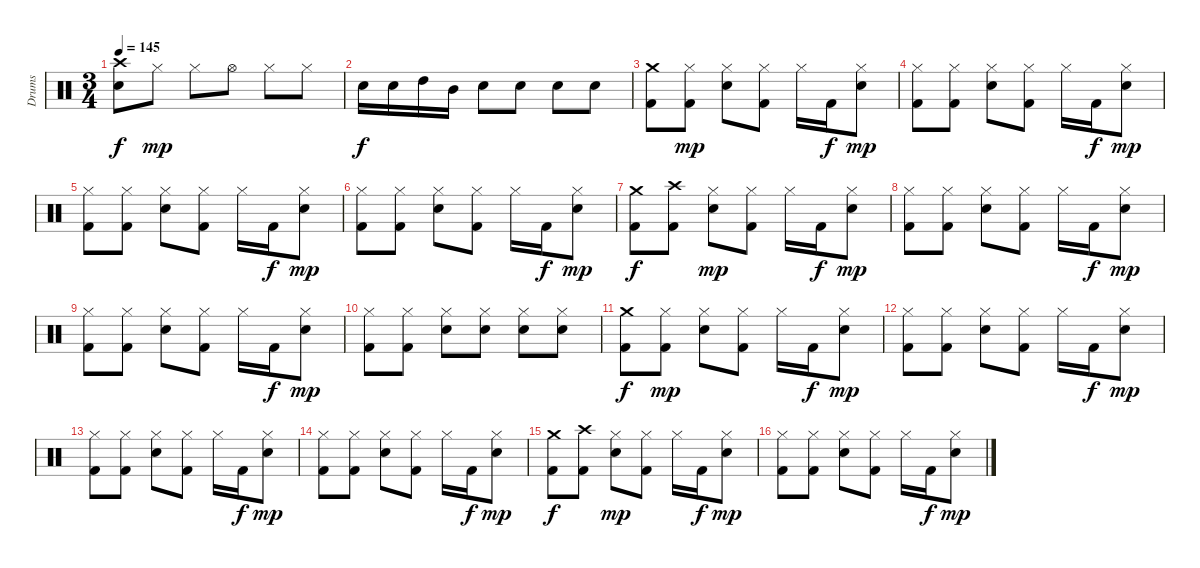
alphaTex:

\track ("Drums" "Drums") {instrument percussion}
\staff {score}
\articulation defaults
\ts (3 4)
\tempo 145
\clef neutral
\ks c
("Crash high (hit)" "Snare (hit) 2").8{dy f} "Hi-Hat (closed)".8{dy mp} "Hi-Hat (closed)".8 "Hi-Hat (open)".8 "Hi-Hat (closed)".8 "Hi-Hat (closed)".8 |
"Snare (hit) 2".16{dy f} "Snare (hit) 2".16 "High Tom (hit)".16 "Mid Tom (hit)".16 "Snare (hit) 2".8 "Snare (hit) 2".8 "Snare (hit) 2".8 "Snare (hit) 2".8 |
("Crash medium (hit)" "Kick (hit) 2").8 ("Hi-Hat (closed)" "Kick (hit) 2").8{dy mp} ("Hi-Hat (closed)" "Snare (hit) 2").8 ("Hi-Hat (closed)" "Kick (hit) 2").8 "Hi-Hat (closed)".16 "Kick (hit) 2".16{dy f} ("Hi-Hat (closed)" "Snare (hit) 2").8{dy mp} |
("Hi-Hat (closed)" "Kick (hit) 2").8 ("Hi-Hat (closed)" "Kick (hit) 2").8 ("Hi-Hat (closed)" "Snare (hit) 2").8 ("Hi-Hat (closed)" "Kick (hit) 2").8 "Hi-Hat (closed)".16 "Kick (hit) 2".16{dy f} ("Hi-Hat (closed)" "Snare (hit) 2").8{dy mp} |
("Hi-Hat (closed)" "Kick (hit) 2").8 ("Hi-Hat (closed)" "Kick (hit) 2").8 ("Hi-Hat (closed)" "Snare (hit) 2").8 ("Hi-Hat (closed)" "Kick (hit) 2").8 "Hi-Hat (closed)".16 "Kick (hit) 2".16{dy f} ("Hi-Hat (closed)" "Snare (hit) 2").8{dy mp} |
("Hi-Hat (closed)" "Kick (hit) 2").8 ("Hi-Hat (closed)" "Kick (hit) 2").8 ("Hi-Hat (closed)" "Snare (hit) 2").8 ("Hi-Hat (closed)" "Kick (hit) 2").8 "Hi-Hat (closed)".16 "Kick (hit) 2".16{dy f} ("Hi-Hat (closed)" "Snare (hit) 2").8{dy mp} |
("Crash medium (hit)" "Kick (hit) 2").8{dy f} ("Crash high (hit)" "Kick (hit) 2").8 ("Hi-Hat (closed)" "Snare (hit) 2").8{dy mp} ("Hi-Hat (closed)" "Kick (hit) 2").8 "Hi-Hat (closed)".16 "Kick (hit) 2".16{dy f} ("Hi-Hat (closed)" "Snare (hit) 2").8{dy mp} |
("Hi-Hat (closed)" "Kick (hit) 2").8 ("Hi-Hat (closed)" "Kick (hit) 2").8 ("Hi-Hat (closed)" "Snare (hit) 2").8 ("Hi-Hat (closed)" "Kick (hit) 2").8 "Hi-Hat (closed)".16 "Kick (hit) 2".16{dy f} ("Hi-Hat (closed)" "Snare (hit) 2").8{dy mp} |
("Hi-Hat (closed)" "Kick (hit) 2").8 ("Hi-Hat (closed)" "Kick (hit) 2").8 ("Hi-Hat (closed)" "Snare (hit) 2").8 ("Hi-Hat (closed)" "Kick (hit) 2").8 "Hi-Hat (closed)".16 "Kick (hit) 2".16{dy f} ("Hi-Hat (closed)" "Snare (hit) 2").8{dy mp} |
("Hi-Hat (closed)" "Kick (hit) 2").8 ("Hi-Hat (closed)" "Kick (hit) 2").8 ("Hi-Hat (closed)" "Snare (hit) 2").8 ("Hi-Hat (closed)" "Snare (hit) 2").8 ("Hi-Hat (closed)" "Snare (hit) 2").8 ("Hi-Hat (closed)" "Snare (hit) 2").8 |
("Crash medium (hit)" "Kick (hit) 2").8{dy f} ("Hi-Hat (closed)" "Kick (hit) 2").8{dy mp} ("Hi-Hat (closed)" "Snare (hit) 2").8 ("Hi-Hat (closed)" "Kick (hit) 2").8 "Hi-Hat (closed)".16 "Kick (hit) 2".16{dy f} ("Hi-Hat (closed)" "Snare (hit) 2").8{dy mp} |
("Hi-Hat (closed)" "Kick (hit) 2").8 ("Hi-Hat (closed)" "Kick (hit) 2").8 ("Hi-Hat (closed)" "Snare (hit) 2").8 ("Hi-Hat (closed)" "Kick (hit) 2").8 "Hi-Hat (closed)".16 "Kick (hit) 2".16{dy f} ("Hi-Hat (closed)" "Snare (hit) 2").8{dy mp} |
("Hi-Hat (closed)" "Kick (hit) 2").8 ("Hi-Hat (closed)" "Kick (hit) 2").8 ("Hi-Hat (closed)" "Snare (hit) 2").8 ("Hi-Hat (closed)" "Kick (hit) 2").8 "Hi-Hat (closed)".16 "Kick (hit) 2".16{dy f} ("Hi-Hat (closed)" "Snare (hit) 2").8{dy mp} |
("Hi-Hat (closed)" "Kick (hit) 2").8 ("Hi-Hat (closed)" "Kick (hit) 2").8 ("Hi-Hat (closed)" "Snare (hit) 2").8 ("Hi-Hat (closed)" "Kick (hit) 2").8 "Hi-Hat (closed)".16 "Kick (hit) 2".16{dy f} ("Hi-Hat (closed)" "Snare (hit) 2").8{dy mp} |
("Crash medium (hit)" "Kick (hit) 2").8{dy f} ("Crash high (hit)" "Kick (hit) 2").8 ("Hi-Hat (closed)" "Snare (hit) 2").8{dy mp} ("Hi-Hat (closed)" "Kick (hit) 2").8 "Hi-Hat (closed)".16 "Kick (hit) 2".16{dy f} ("Hi-Hat (closed)" "Snare (hit) 2").8{dy mp} |
("Hi-Hat (closed)" "Kick (hit) 2").8 ("Hi-Hat (closed)" "Kick (hit) 2").8 ("Hi-Hat (closed)" "Snare (hit) 2").8 ("Hi-Hat (closed)" "Kick (hit) 2").8 "Hi-Hat (closed)".16 "Kick (hit) 2".16{dy f} ("Hi-Hat (closed)" "Snare (hit) 2").8{dy mp}
